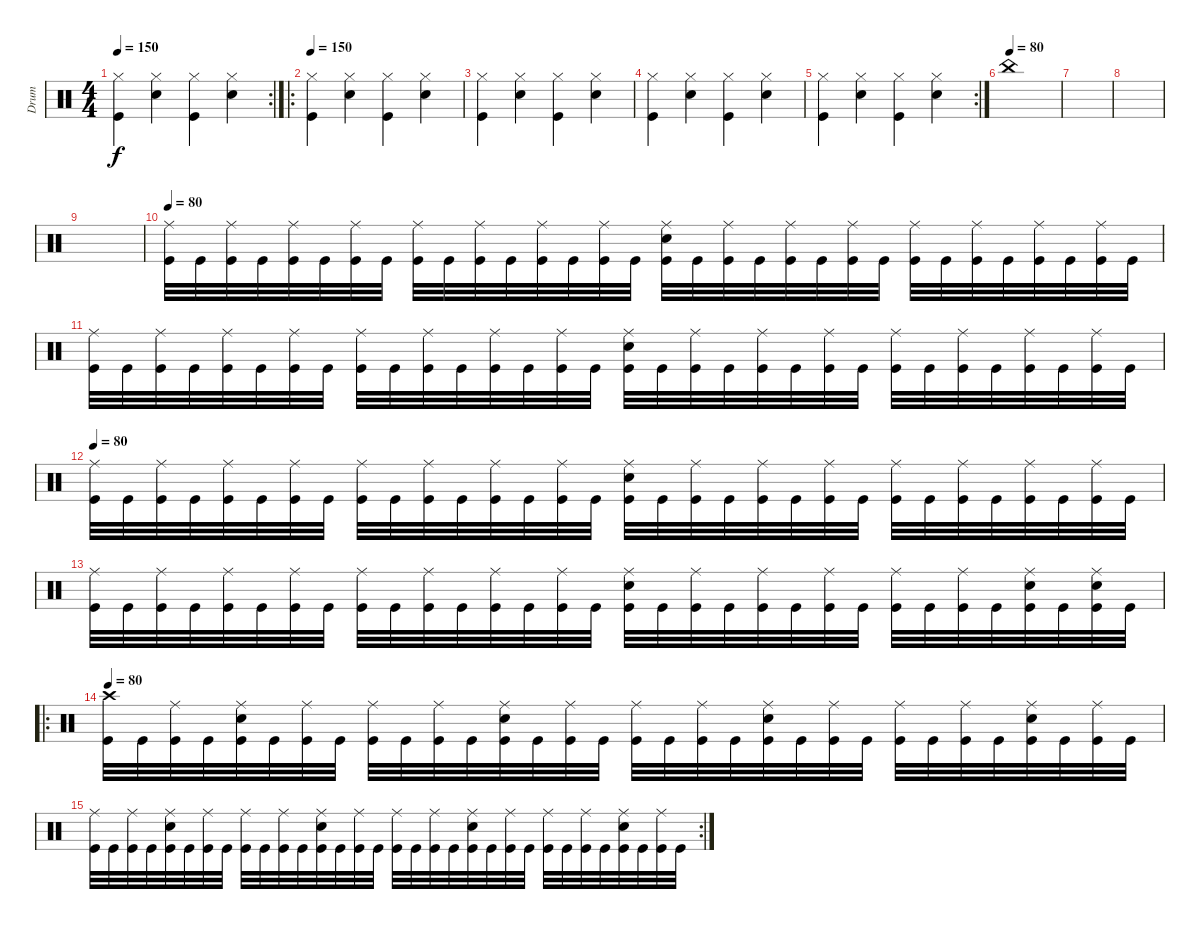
\track ("Drum" "Drum") {instrument percussion}
\staff {score}
\articulation defaults
\rc 2
\ts (4 4)
\tempo 150
\clef neutral
\ks c
("Kick (hit)" "Hi-Hat (closed)").4{dy f} ("Electric Snare (hit)" "Hi-Hat (closed)").4 ("Kick (hit)" "Hi-Hat (closed)").4 ("Electric Snare (hit)" "Hi-Hat (closed)").4 |
\ro
\tempo 150
("Kick (hit)" "Hi-Hat (closed)").4 ("Electric Snare (hit)" "Hi-Hat (closed)").4 ("Kick (hit)" "Hi-Hat (closed)").4 ("Electric Snare (hit)" "Hi-Hat (closed)").4 |
("Kick (hit)" "Hi-Hat (closed)").4 ("Electric Snare (hit)" "Hi-Hat (closed)").4 ("Kick (hit)" "Hi-Hat (closed)").4 ("Electric Snare (hit)" "Hi-Hat (closed)").4 |
("Kick (hit)" "Hi-Hat (closed)").4 ("Electric Snare (hit)" "Hi-Hat (closed)").4 ("Kick (hit)" "Hi-Hat (closed)").4 ("Electric Snare (hit)" "Hi-Hat (closed)").4 |
\rc 2
("Kick (hit)" "Hi-Hat (closed)").4 ("Electric Snare (hit)" "Hi-Hat (closed)").4 ("Kick (hit)" "Hi-Hat (closed)").4 ("Electric Snare (hit)" "Hi-Hat (closed)").4 |
\tempo (80)
"China (hit)".1 |
|
|
|
\tempo 80
("Kick (hit)" "Ride (middle)").32 "Kick (hit)".32 ("Kick (hit)" "Ride (middle)").32 "Kick (hit)".32 ("Kick (hit)" "Ride (middle)").32 "Kick (hit)".32 ("Kick (hit)" "Ride (middle)").32 "Kick (hit)".32 ("Kick (hit)" "Ride (middle)").32 "Kick (hit)".32 ("Kick (hit)" "Ride (middle)").32 "Kick (hit)".32 ("Kick (hit)" "Ride (middle)").32 "Kick (hit)".32 ("Kick (hit)" "Ride (middle)").32 "Kick (hit)".32 ("Kick (hit)" "Electric Snare (hit)" "Ride (middle)").32 "Kick (hit)".32 ("Kick (hit)" "Ride (middle)").32 "Kick (hit)".32 ("Kick (hit)" "Ride (middle)").32 "Kick (hit)".32 ("Kick (hit)" "Ride (middle)").32 "Kick (hit)".32 ("Kick (hit)" "Ride (middle)").32 "Kick (hit)".32 ("Kick (hit)" "Ride (middle)").32 "Kick (hit)".32 ("Kick (hit)" "Ride (middle)").32 "Kick (hit)".32 ("Kick (hit)" "Ride (middle)").32 "Kick (hit)".32 |
("Kick (hit)" "Ride (middle)").32 "Kick (hit)".32 ("Kick (hit)" "Ride (middle)").32 "Kick (hit)".32 ("Kick (hit)" "Ride (middle)").32 "Kick (hit)".32 ("Kick (hit)" "Ride (middle)").32 "Kick (hit)".32 ("Kick (hit)" "Ride (middle)").32 "Kick (hit)".32 ("Kick (hit)" "Ride (middle)").32 "Kick (hit)".32 ("Kick (hit)" "Ride (middle)").32 "Kick (hit)".32 ("Kick (hit)" "Ride (middle)").32 "Kick (hit)".32 ("Kick (hit)" "Electric Snare (hit)" "Ride (middle)").32 "Kick (hit)".32 ("Kick (hit)" "Ride (middle)").32 "Kick (hit)".32 ("Kick (hit)" "Ride (middle)").32 "Kick (hit)".32 ("Kick (hit)" "Ride (middle)").32 "Kick (hit)".32 ("Kick (hit)" "Ride (middle)").32 "Kick (hit)".32 ("Kick (hit)" "Ride (middle)").32 "Kick (hit)".32 ("Kick (hit)" "Ride (middle)").32 "Kick (hit)".32 ("Kick (hit)" "Ride (middle)").32 "Kick (hit)".32 |
\tempo 80
("Kick (hit)" "Ride (middle)").32 "Kick (hit)".32 ("Kick (hit)" "Ride (middle)").32 "Kick (hit)".32 ("Kick (hit)" "Ride (middle)").32 "Kick (hit)".32 ("Kick (hit)" "Ride (middle)").32 "Kick (hit)".32 ("Kick (hit)" "Ride (middle)").32 "Kick (hit)".32 ("Kick (hit)" "Ride (middle)").32 "Kick (hit)".32 ("Kick (hit)" "Ride (middle)").32 "Kick (hit)".32 ("Kick (hit)" "Ride (middle)").32 "Kick (hit)".32 ("Kick (hit)" "Electric Snare (hit)" "Ride (middle)").32 "Kick (hit)".32 ("Kick (hit)" "Ride (middle)").32 "Kick (hit)".32 ("Kick (hit)" "Ride (middle)").32 "Kick (hit)".32 ("Kick (hit)" "Ride (middle)").32 "Kick (hit)".32 ("Kick (hit)" "Ride (middle)").32 "Kick (hit)".32 ("Kick (hit)" "Ride (middle)").32 "Kick (hit)".32 ("Kick (hit)" "Ride (middle)").32 "Kick (hit)".32 ("Kick (hit)" "Ride (middle)").32 "Kick (hit)".32 |
("Kick (hit)" "Ride (middle)").32 "Kick (hit)".32 ("Kick (hit)" "Ride (middle)").32 "Kick (hit)".32 ("Kick (hit)" "Ride (middle)").32 "Kick (hit)".32 ("Kick (hit)" "Ride (middle)").32 "Kick (hit)".32 ("Kick (hit)" "Ride (middle)").32 "Kick (hit)".32 ("Kick (hit)" "Ride (middle)").32 "Kick (hit)".32 ("Kick (hit)" "Ride (middle)").32 "Kick (hit)".32 ("Kick (hit)" "Ride (middle)").32 "Kick (hit)".32 ("Kick (hit)" "Electric Snare (hit)" "Ride (middle)").32 "Kick (hit)".32 ("Kick (hit)" "Ride (middle)").32 "Kick (hit)".32 ("Kick (hit)" "Ride (middle)").32 "Kick (hit)".32 ("Kick (hit)" "Ride (middle)").32 "Kick (hit)".32 ("Kick (hit)" "Ride (middle)").32 "Kick (hit)".32 ("Kick (hit)" "Ride (middle)").32 "Kick (hit)".32 ("Kick (hit)" "Electric Snare (hit)" "Ride (middle)").32 "Kick (hit)".32 ("Kick (hit)" "Electric Snare (hit)" "Ride (middle)").32 "Kick (hit)".32 |
\ro
\tempo 80
("Kick (hit)" "Crash high (hit)").32 "Kick (hit)".32 ("Kick (hit)" "Ride (middle)").32 "Kick (hit)".32 ("Kick (hit)" "Electric Snare (hit)" "Ride (middle)").32 "Kick (hit)".32 ("Kick (hit)" "Ride (middle)").32 "Kick (hit)".32 ("Kick (hit)" "Ride (middle)").32 "Kick (hit)".32 ("Kick (hit)" "Ride (middle)").32 "Kick (hit)".32 ("Kick (hit)" "Electric Snare (hit)" "Ride (middle)").32 "Kick (hit)".32 ("Kick (hit)" "Ride (middle)").32 "Kick (hit)".32 ("Kick (hit)" "Ride (middle)").32 "Kick (hit)".32 ("Kick (hit)" "Ride (middle)").32 "Kick (hit)".32 ("Kick (hit)" "Electric Snare (hit)" "Ride (middle)").32 "Kick (hit)".32 ("Kick (hit)" "Ride (middle)").32 "Kick (hit)".32 ("Kick (hit)" "Ride (middle)").32 "Kick (hit)".32 ("Kick (hit)" "Ride (middle)").32 "Kick (hit)".32 ("Kick (hit)" "Electric Snare (hit)" "Ride (middle)").32 "Kick (hit)".32 ("Kick (hit)" "Ride (middle)").32 "Kick (hit)".32 |
\rc 2
("Kick (hit)" "Ride (middle)").32 "Kick (hit)".32 ("Kick (hit)" "Ride (middle)").32 "Kick (hit)".32 ("Kick (hit)" "Electric Snare (hit)" "Ride (middle)").32 "Kick (hit)".32 ("Kick (hit)" "Ride (middle)").32 "Kick (hit)".32 ("Kick (hit)" "Ride (middle)").32 "Kick (hit)".32 ("Kick (hit)" "Ride (middle)").32 "Kick (hit)".32 ("Kick (hit)" "Electric Snare (hit)" "Ride (middle)").32 "Kick (hit)".32 ("Kick (hit)" "Ride (middle)").32 "Kick (hit)".32 ("Kick (hit)" "Ride (middle)").32 "Kick (hit)".32 ("Kick (hit)" "Ride (middle)").32 "Kick (hit)".32 ("Kick (hit)" "Electric Snare (hit)" "Ride (middle)").32 "Kick (hit)".32 ("Kick (hit)" "Ride (middle)").32 "Kick (hit)".32 ("Kick (hit)" "Ride (middle)").32 "Kick (hit)".32 ("Kick (hit)" "Ride (middle)").32 "Kick (hit)".32 ("Kick (hit)" "Electric Snare (hit)" "Ride (middle)").32 "Kick (hit)".32 ("Kick (hit)" "Ride (middle)").32 "Kick (hit)".32
